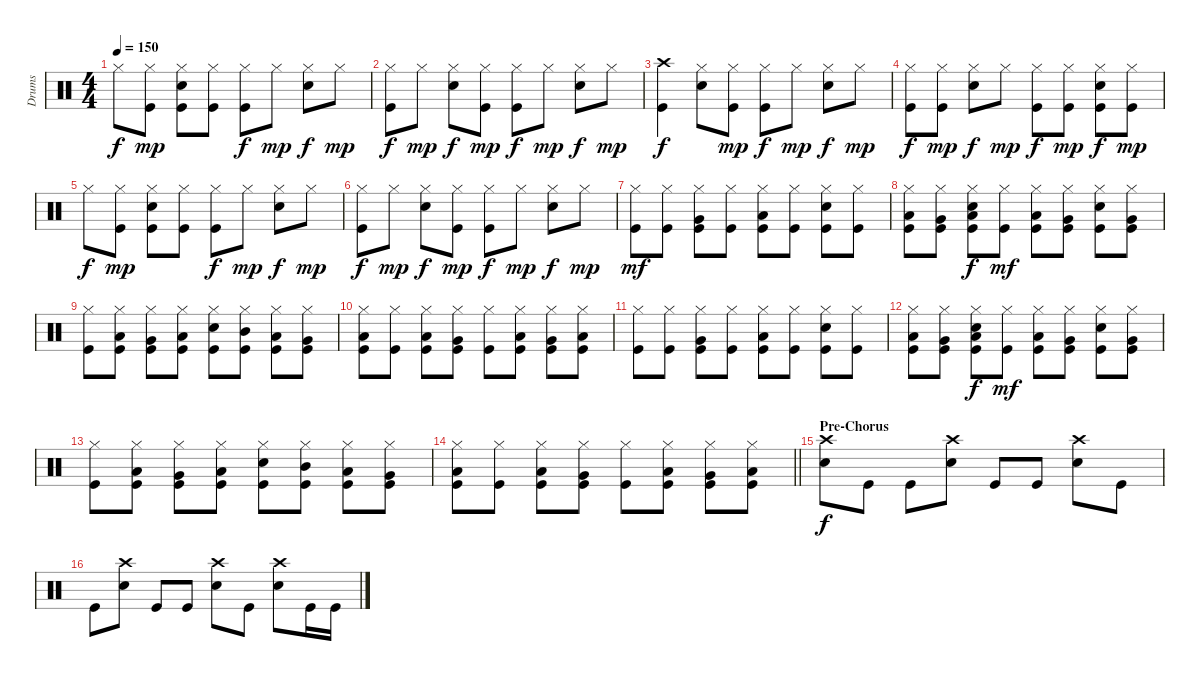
\track ("Drums" "Drums") {instrument percussion}
\staff {score}
\articulation defaults
\ts (4 4)
\tempo 150
\clef neutral
\ks c "Hi-Hat (closed)".8{dy f}
("Hi-Hat (closed)" "Kick (hit)").8{dy mp} ("Snare (hit) 2" "Hi-Hat (closed)" "Kick (hit)").8 ("Hi-Hat (closed)" "Kick (hit)").8 ("Hi-Hat (closed)" "Kick (hit)").8{dy f} "Hi-Hat (closed)".8{dy mp} ("Hi-Hat (closed)" "Snare (hit) 2").8{dy f} "Hi-Hat (closed)".8{dy mp} |
("Hi-Hat (closed)" "Kick (hit)").8{dy f} "Hi-Hat (closed)".8{dy mp} ("Hi-Hat (closed)" "Snare (hit) 2").8{dy f} ("Hi-Hat (closed)" "Kick (hit)").8{dy mp} ("Hi-Hat (closed)" "Kick (hit)").8{dy f} "Hi-Hat (closed)".8{dy mp} ("Hi-Hat (closed)" "Snare (hit) 2").8{dy f} "Hi-Hat (closed)".8{dy mp} |
("Crash high (hit)" "Kick (hit)").4{dy f} ("Hi-Hat (closed)" "Snare (hit) 2").8 ("Hi-Hat (closed)" "Kick (hit)").8{dy mp} ("Hi-Hat (closed)" "Kick (hit)").8{dy f} "Hi-Hat (closed)".8{dy mp} ("Hi-Hat (closed)" "Snare (hit) 2").8{dy f} "Hi-Hat (closed)".8{dy mp} |
("Hi-Hat (closed)" "Kick (hit)").8{dy f} ("Hi-Hat (closed)" "Kick (hit)").8{dy mp} ("Hi-Hat (closed)" "Snare (hit) 2").8{dy f} "Hi-Hat (closed)".8{dy mp} ("Hi-Hat (closed)" "Kick (hit)").8{dy f} ("Hi-Hat (closed)" "Kick (hit)").8{dy mp} ("Snare (hit) 2" "Hi-Hat (closed)" "Kick (hit)").8{dy f} ("Hi-Hat (closed)" "Kick (hit)").8{dy mp} |
"Hi-Hat (closed)".8{dy f} ("Hi-Hat (closed)" "Kick (hit)").8{dy mp} ("Snare (hit) 2" "Hi-Hat (closed)" "Kick (hit)").8 ("Hi-Hat (closed)" "Kick (hit)").8 ("Hi-Hat (closed)" "Kick (hit)").8{dy f} "Hi-Hat (closed)".8{dy mp} ("Hi-Hat (closed)" "Snare (hit) 2").8{dy f} "Hi-Hat (closed)".8{dy mp} |
("Hi-Hat (closed)" "Kick (hit)").8{dy f} "Hi-Hat (closed)".8{dy mp} ("Hi-Hat (closed)" "Snare (hit) 2").8{dy f} ("Hi-Hat (closed)" "Kick (hit)").8{dy mp} ("Hi-Hat (closed)" "Kick (hit)").8{dy f} "Hi-Hat (closed)".8{dy mp} ("Hi-Hat (closed)" "Snare (hit) 2").8{dy f} "Hi-Hat (closed)".8{dy mp} |
("Hi-Hat (closed)" "Kick (hit)").8{dy mf} ("Hi-Hat (closed)" "Kick (hit)").8 ("Hi-Hat (closed)" "Very Low Tom (hit)" "Kick (hit)").8 ("Hi-Hat (closed)" "Kick (hit)").8 ("Hi-Hat (closed)" "Low Floor Tom (hit)" "Kick (hit)").8 ("Hi-Hat (closed)" "Kick (hit)").8 ("Hi-Hat (closed)" "Snare (hit) 2" "Kick (hit)").8 ("Hi-Hat (closed)" "Kick (hit)").8 |
("Hi-Hat (closed)" "Low Tom (hit)" "Kick (hit)").8 ("Hi-Hat (closed)" "Very Low Tom (hit)" "Kick (hit)").8 ("Hi-Hat (closed)" "Snare (hit) 2" "Low Floor Tom (hit)" "Kick (hit)").8{dy f} ("Hi-Hat (closed)" "Kick (hit)").8{dy mf} ("Hi-Hat (closed)" "Low Tom (hit)" "Kick (hit)").8 ("Hi-Hat (closed)" "Very Low Tom (hit)" "Kick (hit)").8 ("Hi-Hat (closed)" "Snare (hit) 2" "Kick (hit)").8 ("Hi-Hat (closed)" "Very Low Tom (hit)" "Kick (hit)").8 |
("Hi-Hat (closed)" "Kick (hit)").8 ("Hi-Hat (closed)" "Low Tom (hit)" "Kick (hit)").8 ("Hi-Hat (closed)" "Very Low Tom (hit)" "Kick (hit)").8 ("Hi-Hat (closed)" "Low Floor Tom (hit)" "Kick (hit)").8 ("Hi-Hat (closed)" "Snare (hit) 2" "Kick (hit)").8 ("Hi-Hat (closed)" "Mid Tom (hit)" "Kick (hit)").8 ("Hi-Hat (closed)" "Low Tom (hit)" "Kick (hit)").8 ("Hi-Hat (closed)" "Very Low Tom (hit)" "Kick (hit)").8 |
("Hi-Hat (closed)" "Low Tom (hit)" "Kick (hit)").8 ("Hi-Hat (closed)" "Kick (hit)").8 ("Hi-Hat (closed)" "Low Tom (hit)" "Kick (hit)").8 ("Hi-Hat (closed)" "Very Low Tom (hit)" "Kick (hit)").8 ("Hi-Hat (closed)" "Kick (hit)").8 ("Hi-Hat (closed)" "Low Tom (hit)" "Kick (hit)").8 ("Hi-Hat (closed)" "Very Low Tom (hit)" "Kick (hit)").8 ("Hi-Hat (closed)" "Low Floor Tom (hit)" "Kick (hit)").8 |
("Hi-Hat (closed)" "Kick (hit)").8 ("Hi-Hat (closed)" "Kick (hit)").8 ("Hi-Hat (closed)" "Very Low Tom (hit)" "Kick (hit)").8 ("Hi-Hat (closed)" "Kick (hit)").8 ("Hi-Hat (closed)" "Low Floor Tom (hit)" "Kick (hit)").8 ("Hi-Hat (closed)" "Kick (hit)").8 ("Hi-Hat (closed)" "Snare (hit) 2" "Kick (hit)").8 ("Hi-Hat (closed)" "Kick (hit)").8 |
("Hi-Hat (closed)" "Low Tom (hit)" "Kick (hit)").8 ("Hi-Hat (closed)" "Very Low Tom (hit)" "Kick (hit)").8 ("Hi-Hat (closed)" "Snare (hit) 2" "Low Floor Tom (hit)" "Kick (hit)").8{dy f} ("Hi-Hat (closed)" "Kick (hit)").8{dy mf} ("Hi-Hat (closed)" "Low Tom (hit)" "Kick (hit)").8 ("Hi-Hat (closed)" "Very Low Tom (hit)" "Kick (hit)").8 ("Hi-Hat (closed)" "Snare (hit) 2" "Kick (hit)").8 ("Hi-Hat (closed)" "Very Low Tom (hit)" "Kick (hit)").8 |
("Hi-Hat (closed)" "Kick (hit)").8 ("Hi-Hat (closed)" "Low Tom (hit)" "Kick (hit)").8 ("Hi-Hat (closed)" "Very Low Tom (hit)" "Kick (hit)").8 ("Hi-Hat (closed)" "Low Floor Tom (hit)" "Kick (hit)").8 ("Hi-Hat (closed)" "Snare (hit) 2" "Kick (hit)").8 ("Hi-Hat (closed)" "Mid Tom (hit)" "Kick (hit)").8 ("Hi-Hat (closed)" "Low Tom (hit)" "Kick (hit)").8 ("Hi-Hat (closed)" "Very Low Tom (hit)" "Kick (hit)").8 |
\barLineRight lightlight
("Hi-Hat (closed)" "Low Tom (hit)" "Kick (hit)").8 ("Hi-Hat (closed)" "Kick (hit)").8 ("Hi-Hat (closed)" "Low Tom (hit)" "Kick (hit)").8 ("Hi-Hat (closed)" "Very Low Tom (hit)" "Kick (hit)").8 ("Hi-Hat (closed)" "Kick (hit)").8 ("Hi-Hat (closed)" "Low Tom (hit)" "Kick (hit)").8 ("Hi-Hat (closed)" "Very Low Tom (hit)" "Kick (hit)").8 ("Hi-Hat (closed)" "Low Floor Tom (hit)" "Kick (hit)").8 |
\section ("" "Pre-Chorus ")
("Crash high (hit)" "Snare (hit) 2").8{dy f} "Kick (hit)".8 "Kick (hit)".8 ("Snare (hit) 2" "Crash high (hit)").8 "Kick (hit)".8 "Kick (hit)".8 ("Crash high (hit)" "Snare (hit) 2").8 "Kick (hit)".8 |
"Kick (hit)".8 ("Snare (hit) 2" "Crash high (hit)").8 "Kick (hit)".8 "Kick (hit)".8 ("Crash high (hit)" "Snare (hit) 2").8 "Kick (hit)".8 ("Snare (hit) 2" "Crash high (hit)").8 "Kick (hit)".16 "Kick (hit)".16
